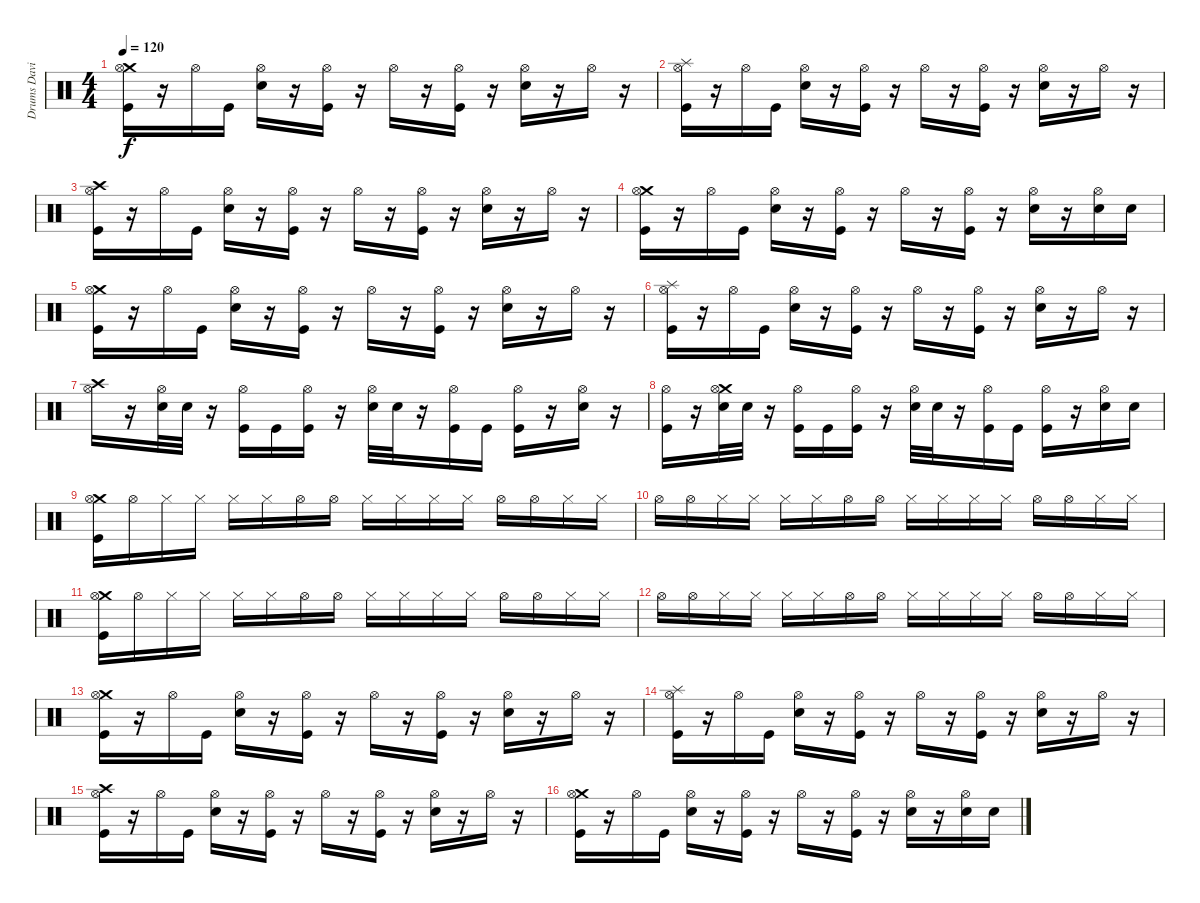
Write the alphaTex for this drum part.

\track ("Drums David" "Drums Davi") {instrument percussion}
\staff {score}
\articulation defaults
\ts (4 4)
\tempo 120
\clef neutral
\ks c
("Crash medium (hit)" "Hi-Hat (open)" "Kick (hit)").16{dy f} r.16 "Hi-Hat (open)".16 "Kick (hit)".16 ("Hi-Hat (open)" "Electric Snare (hit)").16 r.16 ("Hi-Hat (open)" "Kick (hit)").16 r.16 "Hi-Hat (open)".16 r.16 ("Hi-Hat (open)" "Kick (hit)").16 r.16 ("Hi-Hat (open)" "Electric Snare (hit)").16 r.16 "Hi-Hat (open)".16 r.16 |
("Splash (hit)" "Hi-Hat (open)" "Kick (hit)").16 r.16 "Hi-Hat (open)".16 "Kick (hit)".16 ("Hi-Hat (open)" "Electric Snare (hit)").16 r.16 ("Hi-Hat (open)" "Kick (hit)").16 r.16 "Hi-Hat (open)".16 r.16 ("Hi-Hat (open)" "Kick (hit)").16 r.16 ("Hi-Hat (open)" "Electric Snare (hit)").16 r.16 "Hi-Hat (open)".16 r.16 |
("Crash high (hit)" "Hi-Hat (open)" "Kick (hit)").16 r.16 "Hi-Hat (open)".16 "Kick (hit)".16 ("Hi-Hat (open)" "Electric Snare (hit)").16 r.16 ("Hi-Hat (open)" "Kick (hit)").16 r.16 "Hi-Hat (open)".16 r.16 ("Hi-Hat (open)" "Kick (hit)").16 r.16 ("Hi-Hat (open)" "Electric Snare (hit)").16 r.16 "Hi-Hat (open)".16 r.16 |
("Crash medium (hit)" "Hi-Hat (open)" "Kick (hit)").16 r.16 "Hi-Hat (open)".16 "Kick (hit)".16 ("Hi-Hat (open)" "Electric Snare (hit)").16 r.16 ("Hi-Hat (open)" "Kick (hit)").16 r.16 "Hi-Hat (open)".16 r.16 ("Hi-Hat (open)" "Kick (hit)").16 r.16 ("Hi-Hat (open)" "Electric Snare (hit)").16 r.16 ("Hi-Hat (open)" "Electric Snare (hit)").16 "Electric Snare (hit)".16 |
("Crash medium (hit)" "Hi-Hat (open)" "Kick (hit)").16 r.16 "Hi-Hat (open)".16 "Kick (hit)".16 ("Hi-Hat (open)" "Electric Snare (hit)").16 r.16 ("Hi-Hat (open)" "Kick (hit)").16 r.16 "Hi-Hat (open)".16 r.16 ("Hi-Hat (open)" "Kick (hit)").16 r.16 ("Hi-Hat (open)" "Electric Snare (hit)").16 r.16 "Hi-Hat (open)".16 r.16 |
("Splash (hit)" "Hi-Hat (open)" "Kick (hit)").16 r.16 "Hi-Hat (open)".16 "Kick (hit)".16 ("Hi-Hat (open)" "Electric Snare (hit)").16 r.16 ("Hi-Hat (open)" "Kick (hit)").16 r.16 "Hi-Hat (open)".16 r.16 ("Hi-Hat (open)" "Kick (hit)").16 r.16 ("Hi-Hat (open)" "Electric Snare (hit)").16 r.16 "Hi-Hat (open)".16 r.16 |
("Crash high (hit)" "Hi-Hat (open)").16 r.16 ("Hi-Hat (open)" "Electric Snare (hit)").32 "Electric Snare (hit)".32 r.16 ("Hi-Hat (open)" "Kick (hit)").16 "Kick (hit)".16 ("Hi-Hat (open)" "Kick (hit)").16 r.16 ("Hi-Hat (open)" "Electric Snare (hit)").32 "Electric Snare (hit)".32 r.16 ("Hi-Hat (open)" "Kick (hit)").16 "Kick (hit)".16 ("Hi-Hat (open)" "Kick (hit)").16 r.16 ("Hi-Hat (open)" "Electric Snare (hit)").16 r.16 |
("Hi-Hat (open)" "Kick (hit)").16 r.16 ("Crash medium (hit)" "Hi-Hat (open)" "Electric Snare (hit)").32 "Electric Snare (hit)".32 r.16 ("Hi-Hat (open)" "Kick (hit)").16 "Kick (hit)".16 ("Hi-Hat (open)" "Kick (hit)").16 r.16 ("Hi-Hat (open)" "Electric Snare (hit)").32 "Electric Snare (hit)".32 r.16 ("Hi-Hat (open)" "Kick (hit)").16 "Kick (hit)".16 ("Hi-Hat (open)" "Kick (hit)").16 r.16 ("Hi-Hat (open)" "Electric Snare (hit)").16 "Electric Snare (hit)".16 |
("Crash medium (hit)" "Hi-Hat (open)" "Kick (hit)").16 "Hi-Hat (open)".16 "Hi-Hat (closed)".16 "Hi-Hat (closed)".16 "Hi-Hat (closed)".16 "Hi-Hat (closed)".16 "Hi-Hat (open)".16 "Hi-Hat (open)".16 "Hi-Hat (closed)".16 "Hi-Hat (closed)".16 "Hi-Hat (closed)".16 "Hi-Hat (closed)".16 "Hi-Hat (open)".16 "Hi-Hat (open)".16 "Hi-Hat (closed)".16 "Hi-Hat (closed)".16 |
"Hi-Hat (open)".16 "Hi-Hat (open)".16 "Hi-Hat (closed)".16 "Hi-Hat (closed)".16 "Hi-Hat (closed)".16 "Hi-Hat (closed)".16 "Hi-Hat (open)".16 "Hi-Hat (open)".16 "Hi-Hat (closed)".16 "Hi-Hat (closed)".16 "Hi-Hat (closed)".16 "Hi-Hat (closed)".16 "Hi-Hat (open)".16 "Hi-Hat (open)".16 "Hi-Hat (closed)".16 "Hi-Hat (closed)".16 |
("Crash medium (hit)" "Hi-Hat (open)" "Kick (hit)").16 "Hi-Hat (open)".16 "Hi-Hat (closed)".16 "Hi-Hat (closed)".16 "Hi-Hat (closed)".16 "Hi-Hat (closed)".16 "Hi-Hat (open)".16 "Hi-Hat (open)".16 "Hi-Hat (closed)".16 "Hi-Hat (closed)".16 "Hi-Hat (closed)".16 "Hi-Hat (closed)".16 "Hi-Hat (open)".16 "Hi-Hat (open)".16 "Hi-Hat (closed)".16 "Hi-Hat (closed)".16 |
"Hi-Hat (open)".16 "Hi-Hat (open)".16 "Hi-Hat (closed)".16 "Hi-Hat (closed)".16 "Hi-Hat (closed)".16 "Hi-Hat (closed)".16 "Hi-Hat (open)".16 "Hi-Hat (open)".16 "Hi-Hat (closed)".16 "Hi-Hat (closed)".16 "Hi-Hat (closed)".16 "Hi-Hat (closed)".16 "Hi-Hat (open)".16 "Hi-Hat (open)".16 "Hi-Hat (closed)".16 "Hi-Hat (closed)".16 |
("Crash medium (hit)" "Hi-Hat (open)" "Kick (hit)").16 r.16 "Hi-Hat (open)".16 "Kick (hit)".16 ("Hi-Hat (open)" "Electric Snare (hit)").16 r.16 ("Hi-Hat (open)" "Kick (hit)").16 r.16 "Hi-Hat (open)".16 r.16 ("Hi-Hat (open)" "Kick (hit)").16 r.16 ("Hi-Hat (open)" "Electric Snare (hit)").16 r.16 "Hi-Hat (open)".16 r.16 |
("Splash (hit)" "Hi-Hat (open)" "Kick (hit)").16 r.16 "Hi-Hat (open)".16 "Kick (hit)".16 ("Hi-Hat (open)" "Electric Snare (hit)").16 r.16 ("Hi-Hat (open)" "Kick (hit)").16 r.16 "Hi-Hat (open)".16 r.16 ("Hi-Hat (open)" "Kick (hit)").16 r.16 ("Hi-Hat (open)" "Electric Snare (hit)").16 r.16 "Hi-Hat (open)".16 r.16 |
("Crash high (hit)" "Hi-Hat (open)" "Kick (hit)").16 r.16 "Hi-Hat (open)".16 "Kick (hit)".16 ("Hi-Hat (open)" "Electric Snare (hit)").16 r.16 ("Hi-Hat (open)" "Kick (hit)").16 r.16 "Hi-Hat (open)".16 r.16 ("Hi-Hat (open)" "Kick (hit)").16 r.16 ("Hi-Hat (open)" "Electric Snare (hit)").16 r.16 "Hi-Hat (open)".16 r.16 |
("Crash medium (hit)" "Hi-Hat (open)" "Kick (hit)").16 r.16 "Hi-Hat (open)".16 "Kick (hit)".16 ("Hi-Hat (open)" "Electric Snare (hit)").16 r.16 ("Hi-Hat (open)" "Kick (hit)").16 r.16 "Hi-Hat (open)".16 r.16 ("Hi-Hat (open)" "Kick (hit)").16 r.16 ("Hi-Hat (open)" "Electric Snare (hit)").16 r.16 ("Hi-Hat (open)" "Electric Snare (hit)").16 "Electric Snare (hit)".16
